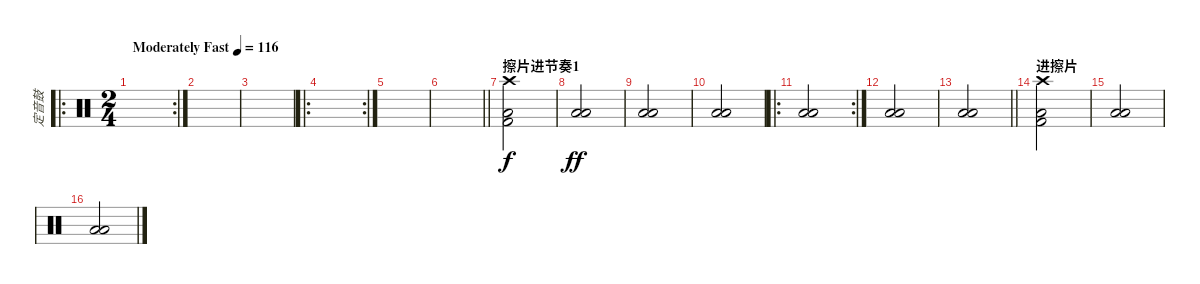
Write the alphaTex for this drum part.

\track ("定音鼓" "定音鼓") {instrument percussion}
\staff {score}
\articulation defaults
\ro
\rc 2
\ts (2 4)
\tempo (116 "Moderately Fast")
\clef neutral
\ks c
|
|
|
\ro
\rc 2
|
|
\barLineRight lightlight
|
\section ("" "擦片进节奏1")
("Crash high (hit)" "Kick (hit) 2" "Low Floor Tom (hit)").2 |
("Low Floor Tom (hit)" "Low Floor Tom (hit)").2{dy ff} |
("Low Floor Tom (hit)" "Low Floor Tom (hit)").2 |
("Low Floor Tom (hit)" "Low Floor Tom (hit)").2 |
\ro
\rc 2
("Low Floor Tom (hit)" "Low Floor Tom (hit)").2 |
("Low Floor Tom (hit)" "Low Floor Tom (hit)").2 |
\barLineRight lightlight
("Low Floor Tom (hit)" "Low Floor Tom (hit)").2 |
\section ("" "进擦片")
("Crash high (hit)" "Kick (hit) 2" "Low Floor Tom (hit)").2 |
("Low Floor Tom (hit)" "Low Floor Tom (hit)").2 |
("Low Floor Tom (hit)" "Low Floor Tom (hit)").2
